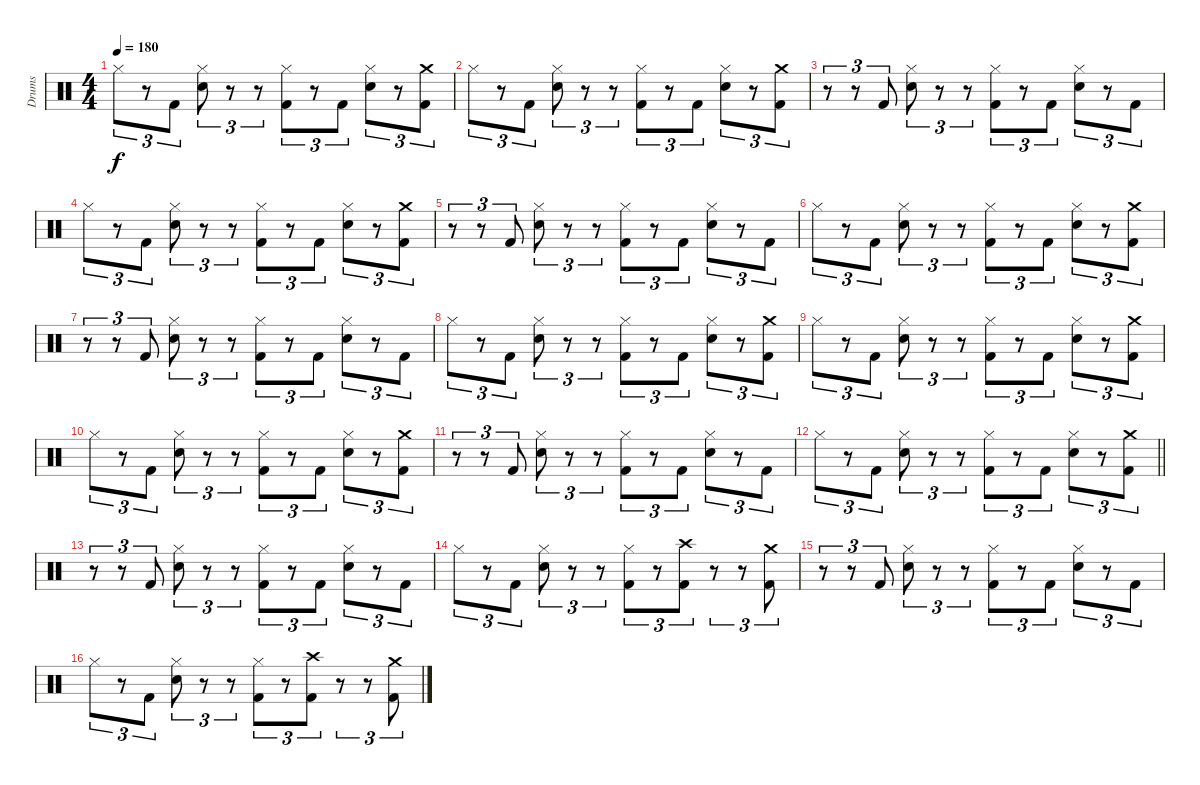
\track ("Drums" "Drums") {instrument percussion}
\staff {score}
\articulation defaults
\ts (4 4)
\tempo 180
\clef neutral
\ks c "Hi-Hat (closed)".8{tu (3 2) dy f}
r.8{tu (3 2)} "Kick (hit) 2".8{tu (3 2)} ("Hi-Hat (closed)" "Snare (hit) 2").8{tu (3 2)} r.8{tu (3 2)} r.8{tu (3 2)} ("Hi-Hat (closed)" "Kick (hit) 2").8{tu (3 2)} r.8{tu (3 2)} "Kick (hit) 2".8{tu (3 2)} ("Hi-Hat (closed)" "Snare (hit) 2").8{tu (3 2)} r.8{tu (3 2)} ("Crash medium (hit)" "Kick (hit) 2").8{tu (3 2)} |
"Hi-Hat (closed)".8{tu (3 2)} r.8{tu (3 2)} "Kick (hit) 2".8{tu (3 2)} ("Hi-Hat (closed)" "Snare (hit) 2").8{tu (3 2)} r.8{tu (3 2)} r.8{tu (3 2)} ("Hi-Hat (closed)" "Kick (hit) 2").8{tu (3 2)} r.8{tu (3 2)} "Kick (hit) 2".8{tu (3 2)} ("Hi-Hat (closed)" "Snare (hit) 2").8{tu (3 2)} r.8{tu (3 2)} ("Crash medium (hit)" "Kick (hit) 2").8{tu (3 2)} |
r.8{tu (3 2)} r.8{tu (3 2)} "Kick (hit) 2".8{tu (3 2)} ("Hi-Hat (closed)" "Snare (hit) 2").8{tu (3 2)} r.8{tu (3 2)} r.8{tu (3 2)} ("Hi-Hat (closed)" "Kick (hit) 2").8{tu (3 2)} r.8{tu (3 2)} "Kick (hit) 2".8{tu (3 2)} ("Hi-Hat (closed)" "Snare (hit) 2").8{tu (3 2)} r.8{tu (3 2)} "Kick (hit) 2".8{tu (3 2)} |
"Hi-Hat (closed)".8{tu (3 2)} r.8{tu (3 2)} "Kick (hit) 2".8{tu (3 2)} ("Hi-Hat (closed)" "Snare (hit) 2").8{tu (3 2)} r.8{tu (3 2)} r.8{tu (3 2)} ("Hi-Hat (closed)" "Kick (hit) 2").8{tu (3 2)} r.8{tu (3 2)} "Kick (hit) 2".8{tu (3 2)} ("Hi-Hat (closed)" "Snare (hit) 2").8{tu (3 2)} r.8{tu (3 2)} ("Crash medium (hit)" "Kick (hit) 2").8{tu (3 2)} |
r.8{tu (3 2)} r.8{tu (3 2)} "Kick (hit) 2".8{tu (3 2)} ("Hi-Hat (closed)" "Snare (hit) 2").8{tu (3 2)} r.8{tu (3 2)} r.8{tu (3 2)} ("Hi-Hat (closed)" "Kick (hit) 2").8{tu (3 2)} r.8{tu (3 2)} "Kick (hit) 2".8{tu (3 2)} ("Hi-Hat (closed)" "Snare (hit) 2").8{tu (3 2)} r.8{tu (3 2)} "Kick (hit) 2".8{tu (3 2)} |
"Hi-Hat (closed)".8{tu (3 2)} r.8{tu (3 2)} "Kick (hit) 2".8{tu (3 2)} ("Hi-Hat (closed)" "Snare (hit) 2").8{tu (3 2)} r.8{tu (3 2)} r.8{tu (3 2)} ("Hi-Hat (closed)" "Kick (hit) 2").8{tu (3 2)} r.8{tu (3 2)} "Kick (hit) 2".8{tu (3 2)} ("Hi-Hat (closed)" "Snare (hit) 2").8{tu (3 2)} r.8{tu (3 2)} ("Crash medium (hit)" "Kick (hit) 2").8{tu (3 2)} |
r.8{tu (3 2)} r.8{tu (3 2)} "Kick (hit) 2".8{tu (3 2)} ("Hi-Hat (closed)" "Snare (hit) 2").8{tu (3 2)} r.8{tu (3 2)} r.8{tu (3 2)} ("Hi-Hat (closed)" "Kick (hit) 2").8{tu (3 2)} r.8{tu (3 2)} "Kick (hit) 2".8{tu (3 2)} ("Hi-Hat (closed)" "Snare (hit) 2").8{tu (3 2)} r.8{tu (3 2)} "Kick (hit) 2".8{tu (3 2)} |
"Hi-Hat (closed)".8{tu (3 2)} r.8{tu (3 2)} "Kick (hit) 2".8{tu (3 2)} ("Hi-Hat (closed)" "Snare (hit) 2").8{tu (3 2)} r.8{tu (3 2)} r.8{tu (3 2)} ("Hi-Hat (closed)" "Kick (hit) 2").8{tu (3 2)} r.8{tu (3 2)} "Kick (hit) 2".8{tu (3 2)} ("Hi-Hat (closed)" "Snare (hit) 2").8{tu (3 2)} r.8{tu (3 2)} ("Crash medium (hit)" "Kick (hit) 2").8{tu (3 2)} |
"Hi-Hat (closed)".8{tu (3 2)} r.8{tu (3 2)} "Kick (hit) 2".8{tu (3 2)} ("Hi-Hat (closed)" "Snare (hit) 2").8{tu (3 2)} r.8{tu (3 2)} r.8{tu (3 2)} ("Hi-Hat (closed)" "Kick (hit) 2").8{tu (3 2)} r.8{tu (3 2)} "Kick (hit) 2".8{tu (3 2)} ("Hi-Hat (closed)" "Snare (hit) 2").8{tu (3 2)} r.8{tu (3 2)} ("Crash medium (hit)" "Kick (hit) 2").8{tu (3 2)} |
"Hi-Hat (closed)".8{tu (3 2)} r.8{tu (3 2)} "Kick (hit) 2".8{tu (3 2)} ("Hi-Hat (closed)" "Snare (hit) 2").8{tu (3 2)} r.8{tu (3 2)} r.8{tu (3 2)} ("Hi-Hat (closed)" "Kick (hit) 2").8{tu (3 2)} r.8{tu (3 2)} "Kick (hit) 2".8{tu (3 2)} ("Hi-Hat (closed)" "Snare (hit) 2").8{tu (3 2)} r.8{tu (3 2)} ("Crash medium (hit)" "Kick (hit) 2").8{tu (3 2)} |
r.8{tu (3 2)} r.8{tu (3 2)} "Kick (hit) 2".8{tu (3 2)} ("Hi-Hat (closed)" "Snare (hit) 2").8{tu (3 2)} r.8{tu (3 2)} r.8{tu (3 2)} ("Hi-Hat (closed)" "Kick (hit) 2").8{tu (3 2)} r.8{tu (3 2)} "Kick (hit) 2".8{tu (3 2)} ("Hi-Hat (closed)" "Snare (hit) 2").8{tu (3 2)} r.8{tu (3 2)} "Kick (hit) 2".8{tu (3 2)} |
\barLineRight lightlight "Hi-Hat (closed)".8{tu (3 2)}
r.8{tu (3 2)} "Kick (hit) 2".8{tu (3 2)} ("Hi-Hat (closed)" "Snare (hit) 2").8{tu (3 2)} r.8{tu (3 2)} r.8{tu (3 2)} ("Hi-Hat (closed)" "Kick (hit) 2").8{tu (3 2)} r.8{tu (3 2)} "Kick (hit) 2".8{tu (3 2)} ("Hi-Hat (closed)" "Snare (hit) 2").8{tu (3 2)} r.8{tu (3 2)} ("Crash medium (hit)" "Kick (hit) 2").8{tu (3 2)} |
r.8{tu (3 2)} r.8{tu (3 2)} "Kick (hit) 2".8{tu (3 2)} ("Hi-Hat (closed)" "Snare (hit) 2").8{tu (3 2)} r.8{tu (3 2)} r.8{tu (3 2)} ("Hi-Hat (closed)" "Kick (hit) 2").8{tu (3 2)} r.8{tu (3 2)} "Kick (hit) 2".8{tu (3 2)} ("Hi-Hat (closed)" "Snare (hit) 2").8{tu (3 2)} r.8{tu (3 2)} "Kick (hit) 2".8{tu (3 2)} |
"Hi-Hat (closed)".8{tu (3 2)} r.8{tu (3 2)} "Kick (hit) 2".8{tu (3 2)} ("Hi-Hat (closed)" "Snare (hit) 2").8{tu (3 2)} r.8{tu (3 2)} r.8{tu (3 2)} ("Hi-Hat (closed)" "Kick (hit) 2").8{tu (3 2)} r.8{tu (3 2)} ("Crash high (hit)" "Kick (hit) 2").8{tu (3 2)} r.8{tu (3 2)} r.8{tu (3 2)} ("Crash medium (hit)" "Kick (hit) 2").8{tu (3 2)} |
r.8{tu (3 2)} r.8{tu (3 2)} "Kick (hit) 2".8{tu (3 2)} ("Hi-Hat (closed)" "Snare (hit) 2").8{tu (3 2)} r.8{tu (3 2)} r.8{tu (3 2)} ("Hi-Hat (closed)" "Kick (hit) 2").8{tu (3 2)} r.8{tu (3 2)} "Kick (hit) 2".8{tu (3 2)} ("Hi-Hat (closed)" "Snare (hit) 2").8{tu (3 2)} r.8{tu (3 2)} "Kick (hit) 2".8{tu (3 2)} |
"Hi-Hat (closed)".8{tu (3 2)} r.8{tu (3 2)} "Kick (hit) 2".8{tu (3 2)} ("Hi-Hat (closed)" "Snare (hit) 2").8{tu (3 2)} r.8{tu (3 2)} r.8{tu (3 2)} ("Hi-Hat (closed)" "Kick (hit) 2").8{tu (3 2)} r.8{tu (3 2)} ("Crash high (hit)" "Kick (hit) 2").8{tu (3 2)} r.8{tu (3 2)} r.8{tu (3 2)} ("Crash medium (hit)" "Kick (hit) 2").8{tu (3 2)}
